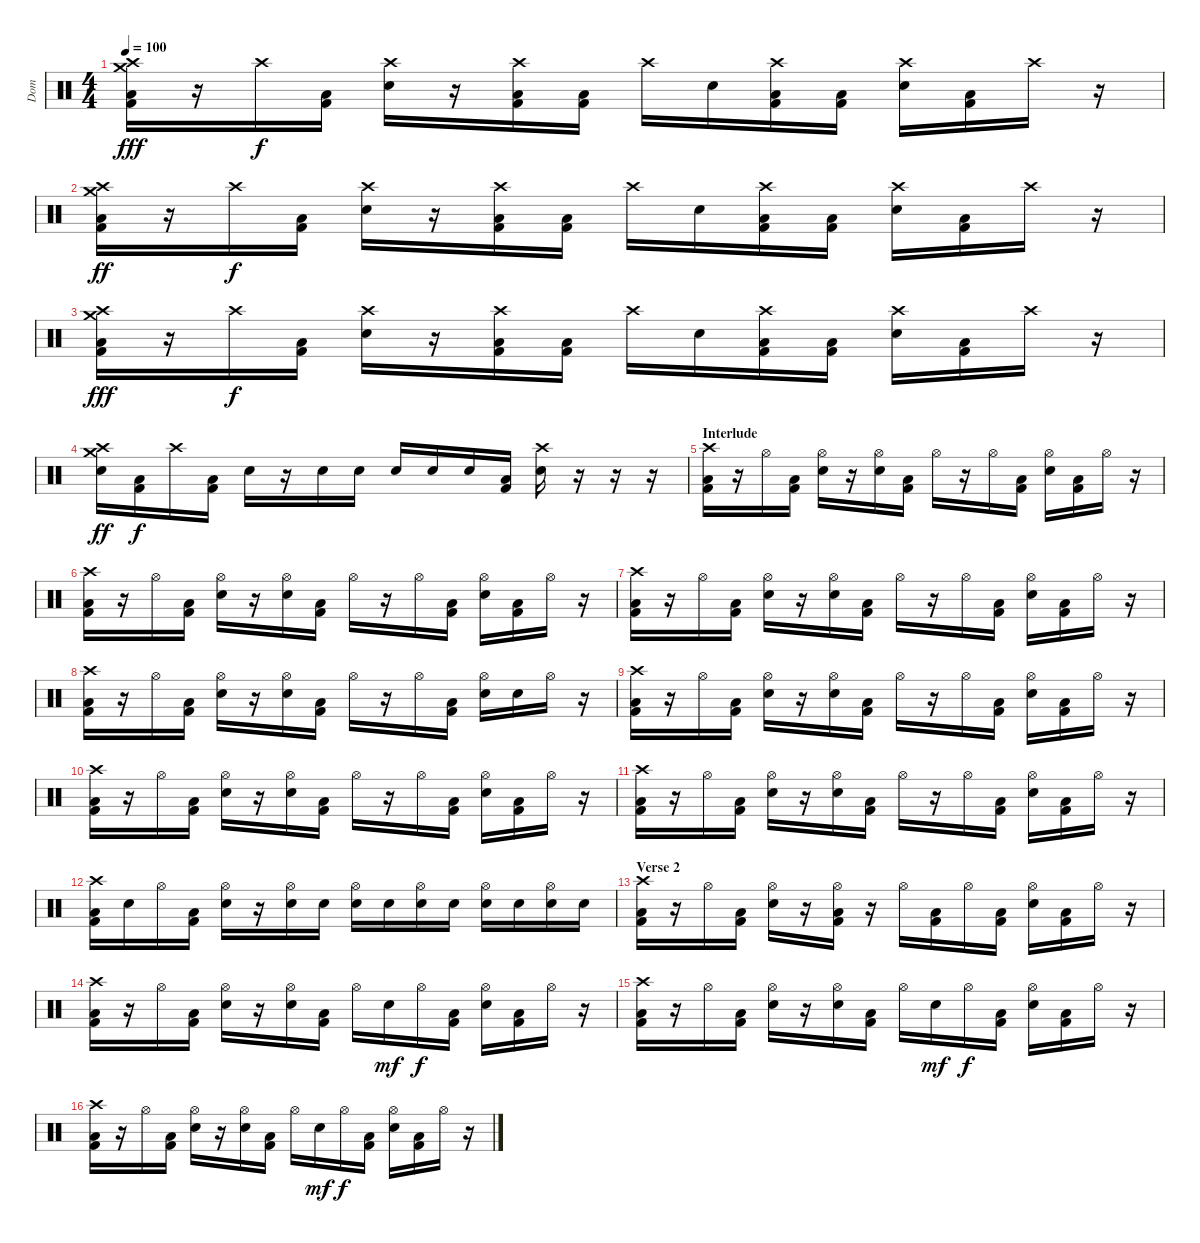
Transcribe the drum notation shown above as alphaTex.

\track ("Dom" "Dom") {instrument percussion}
\staff {score}
\articulation defaults
\ts (4 4)
\tempo 100
\clef neutral
\ks c
("Crash high (hit)" "Crash medium (hit)" "Low Floor Tom (hit)" "Kick (hit) 2").16{dy fff} r.16 "Crash high (hit)".16{dy f} ("Low Floor Tom (hit)" "Kick (hit) 2").16 ("Crash high (hit)" "Electric Snare (hit)").16 r.16 ("Crash high (hit)" "Low Floor Tom (hit)" "Kick (hit) 2").16 ("Low Floor Tom (hit)" "Kick (hit) 2").16 "Crash high (hit)".16 "Electric Snare (hit)".16 ("Crash high (hit)" "Low Floor Tom (hit)" "Kick (hit) 2").16 ("Low Floor Tom (hit)" "Kick (hit) 2").16 ("Crash high (hit)" "Electric Snare (hit)").16 ("Low Floor Tom (hit)" "Kick (hit) 2").16 "Crash high (hit)".16 r.16 |
("Crash high (hit)" "Crash medium (hit)" "Low Floor Tom (hit)" "Kick (hit) 2").16{dy ff} r.16 "Crash high (hit)".16{dy f} ("Low Floor Tom (hit)" "Kick (hit) 2").16 ("Crash high (hit)" "Electric Snare (hit)").16 r.16 ("Crash high (hit)" "Low Floor Tom (hit)" "Kick (hit) 2").16 ("Low Floor Tom (hit)" "Kick (hit) 2").16 "Crash high (hit)".16 "Electric Snare (hit)".16 ("Crash high (hit)" "Low Floor Tom (hit)" "Kick (hit) 2").16 ("Low Floor Tom (hit)" "Kick (hit) 2").16 ("Crash high (hit)" "Electric Snare (hit)").16 ("Low Floor Tom (hit)" "Kick (hit) 2").16 "Crash high (hit)".16 r.16 |
("Crash high (hit)" "Crash medium (hit)" "Low Floor Tom (hit)" "Kick (hit) 2").16{dy fff} r.16 "Crash high (hit)".16{dy f} ("Low Floor Tom (hit)" "Kick (hit) 2").16 ("Crash high (hit)" "Electric Snare (hit)").16 r.16 ("Crash high (hit)" "Low Floor Tom (hit)" "Kick (hit) 2").16 ("Low Floor Tom (hit)" "Kick (hit) 2").16 "Crash high (hit)".16 "Electric Snare (hit)".16 ("Crash high (hit)" "Low Floor Tom (hit)" "Kick (hit) 2").16 ("Low Floor Tom (hit)" "Kick (hit) 2").16 ("Crash high (hit)" "Electric Snare (hit)").16 ("Low Floor Tom (hit)" "Kick (hit) 2").16 "Crash high (hit)".16 r.16 |
("Crash high (hit)" "Crash medium (hit)" "Electric Snare (hit)").16{dy ff} ("Low Floor Tom (hit)" "Kick (hit) 2").16{dy f} "Crash high (hit)".16 ("Low Floor Tom (hit)" "Kick (hit) 2").16 "Electric Snare (hit)".16 r.16 "Electric Snare (hit)".16 "Electric Snare (hit)".16 "Electric Snare (hit)".16 "Electric Snare (hit)".16 "Electric Snare (hit)".16 ("Low Floor Tom (hit)" "Kick (hit) 2").16 ("Crash high (hit)" "Electric Snare (hit)").16 r.16 r.16 r.16 |
\section ("" "Interlude")
("Crash high (hit)" "Low Floor Tom (hit)" "Kick (hit) 2").16 r.16 "Hi-Hat (open)".16 ("Low Floor Tom (hit)" "Kick (hit) 2").16 ("Hi-Hat (open)" "Electric Snare (hit)").16 r.16 ("Hi-Hat (open)" "Electric Snare (hit)").16 ("Low Floor Tom (hit)" "Kick (hit) 2").16 "Hi-Hat (open)".16 r.16 "Hi-Hat (open)".16 ("Low Floor Tom (hit)" "Kick (hit) 2").16 ("Hi-Hat (open)" "Electric Snare (hit)").16 ("Low Floor Tom (hit)" "Kick (hit) 2").16 "Hi-Hat (open)".16 r.16 |
("Crash high (hit)" "Low Floor Tom (hit)" "Kick (hit) 2").16 r.16 "Hi-Hat (open)".16 ("Low Floor Tom (hit)" "Kick (hit) 2").16 ("Hi-Hat (open)" "Electric Snare (hit)").16 r.16 ("Hi-Hat (open)" "Electric Snare (hit)").16 ("Low Floor Tom (hit)" "Kick (hit) 2").16 "Hi-Hat (open)".16 r.16 "Hi-Hat (open)".16 ("Low Floor Tom (hit)" "Kick (hit) 2").16 ("Hi-Hat (open)" "Electric Snare (hit)").16 ("Low Floor Tom (hit)" "Kick (hit) 2").16 "Hi-Hat (open)".16 r.16 |
("Crash high (hit)" "Low Floor Tom (hit)" "Kick (hit) 2").16 r.16 "Hi-Hat (open)".16 ("Low Floor Tom (hit)" "Kick (hit) 2").16 ("Hi-Hat (open)" "Electric Snare (hit)").16 r.16 ("Hi-Hat (open)" "Electric Snare (hit)").16 ("Low Floor Tom (hit)" "Kick (hit) 2").16 "Hi-Hat (open)".16 r.16 "Hi-Hat (open)".16 ("Low Floor Tom (hit)" "Kick (hit) 2").16 ("Hi-Hat (open)" "Electric Snare (hit)").16 ("Low Floor Tom (hit)" "Kick (hit) 2").16 "Hi-Hat (open)".16 r.16 |
("Crash high (hit)" "Low Floor Tom (hit)" "Kick (hit) 2").16 r.16 "Hi-Hat (open)".16 ("Low Floor Tom (hit)" "Kick (hit) 2").16 ("Hi-Hat (open)" "Electric Snare (hit)").16 r.16 ("Hi-Hat (open)" "Electric Snare (hit)").16 ("Low Floor Tom (hit)" "Kick (hit) 2").16 "Hi-Hat (open)".16 r.16 "Hi-Hat (open)".16 ("Low Floor Tom (hit)" "Kick (hit) 2").16 ("Hi-Hat (open)" "Electric Snare (hit)").16 "Electric Snare (hit)".16 "Hi-Hat (open)".16 r.16 |
("Crash high (hit)" "Low Floor Tom (hit)" "Kick (hit) 2").16 r.16 "Hi-Hat (open)".16 ("Low Floor Tom (hit)" "Kick (hit) 2").16 ("Hi-Hat (open)" "Electric Snare (hit)").16 r.16 ("Hi-Hat (open)" "Electric Snare (hit)").16 ("Low Floor Tom (hit)" "Kick (hit) 2").16 "Hi-Hat (open)".16 r.16 "Hi-Hat (open)".16 ("Low Floor Tom (hit)" "Kick (hit) 2").16 ("Hi-Hat (open)" "Electric Snare (hit)").16 ("Low Floor Tom (hit)" "Kick (hit) 2").16 "Hi-Hat (open)".16 r.16 |
("Crash high (hit)" "Low Floor Tom (hit)" "Kick (hit) 2").16 r.16 "Hi-Hat (open)".16 ("Low Floor Tom (hit)" "Kick (hit) 2").16 ("Hi-Hat (open)" "Electric Snare (hit)").16 r.16 ("Hi-Hat (open)" "Electric Snare (hit)").16 ("Low Floor Tom (hit)" "Kick (hit) 2").16 "Hi-Hat (open)".16 r.16 "Hi-Hat (open)".16 ("Low Floor Tom (hit)" "Kick (hit) 2").16 ("Hi-Hat (open)" "Electric Snare (hit)").16 ("Low Floor Tom (hit)" "Kick (hit) 2").16 "Hi-Hat (open)".16 r.16 |
("Crash high (hit)" "Low Floor Tom (hit)" "Kick (hit) 2").16 r.16 "Hi-Hat (open)".16 ("Low Floor Tom (hit)" "Kick (hit) 2").16 ("Hi-Hat (open)" "Electric Snare (hit)").16 r.16 ("Hi-Hat (open)" "Electric Snare (hit)").16 ("Low Floor Tom (hit)" "Kick (hit) 2").16 "Hi-Hat (open)".16 r.16 "Hi-Hat (open)".16 ("Low Floor Tom (hit)" "Kick (hit) 2").16 ("Hi-Hat (open)" "Electric Snare (hit)").16 ("Low Floor Tom (hit)" "Kick (hit) 2").16 "Hi-Hat (open)".16 r.16 |
("Crash high (hit)" "Low Floor Tom (hit)" "Kick (hit) 2").16 "Electric Snare (hit)".16 "Hi-Hat (open)".16 ("Low Floor Tom (hit)" "Kick (hit) 2").16 ("Hi-Hat (open)" "Electric Snare (hit)").16 r.16 ("Hi-Hat (open)" "Electric Snare (hit)").16 "Electric Snare (hit)".16 ("Hi-Hat (open)" "Electric Snare (hit)").16 "Electric Snare (hit)".16 ("Hi-Hat (open)" "Electric Snare (hit)").16 "Electric Snare (hit)".16 ("Hi-Hat (open)" "Electric Snare (hit)").16 "Electric Snare (hit)".16 ("Hi-Hat (open)" "Electric Snare (hit)").16 "Electric Snare (hit)".16 |
\section ("" "Verse 2")
("Crash high (hit)" "Low Floor Tom (hit)" "Kick (hit) 2").16 r.16 "Hi-Hat (open)".16 ("Low Floor Tom (hit)" "Kick (hit) 2").16 ("Hi-Hat (open)" "Electric Snare (hit)").16 r.16 ("Hi-Hat (open)" "Low Floor Tom (hit)" "Kick (hit) 2").16 r.16 "Hi-Hat (open)".16 ("Low Floor Tom (hit)" "Kick (hit) 2").16 "Hi-Hat (open)".16 ("Low Floor Tom (hit)" "Kick (hit) 2").16 ("Hi-Hat (open)" "Electric Snare (hit)").16 ("Low Floor Tom (hit)" "Kick (hit) 2").16 "Hi-Hat (open)".16 r.16 |
("Crash high (hit)" "Low Floor Tom (hit)" "Kick (hit) 2").16 r.16 "Hi-Hat (open)".16 ("Low Floor Tom (hit)" "Kick (hit) 2").16 ("Hi-Hat (open)" "Electric Snare (hit)").16 r.16 ("Hi-Hat (open)" "Electric Snare (hit)").16 ("Low Floor Tom (hit)" "Kick (hit) 2").16 "Hi-Hat (open)".16 "Electric Snare (hit)".16{dy mf} "Hi-Hat (open)".16{dy f} ("Low Floor Tom (hit)" "Kick (hit) 2").16 ("Hi-Hat (open)" "Electric Snare (hit)").16 ("Low Floor Tom (hit)" "Kick (hit) 2").16 "Hi-Hat (open)".16 r.16 |
("Crash high (hit)" "Low Floor Tom (hit)" "Kick (hit) 2").16 r.16 "Hi-Hat (open)".16 ("Low Floor Tom (hit)" "Kick (hit) 2").16 ("Hi-Hat (open)" "Electric Snare (hit)").16 r.16 ("Hi-Hat (open)" "Electric Snare (hit)").16 ("Low Floor Tom (hit)" "Kick (hit) 2").16 "Hi-Hat (open)".16 "Electric Snare (hit)".16{dy mf} "Hi-Hat (open)".16{dy f} ("Low Floor Tom (hit)" "Kick (hit) 2").16 ("Hi-Hat (open)" "Electric Snare (hit)").16 ("Low Floor Tom (hit)" "Kick (hit) 2").16 "Hi-Hat (open)".16 r.16 |
("Crash high (hit)" "Low Floor Tom (hit)" "Kick (hit) 2").16 r.16 "Hi-Hat (open)".16 ("Low Floor Tom (hit)" "Kick (hit) 2").16 ("Hi-Hat (open)" "Electric Snare (hit)").16 r.16 ("Hi-Hat (open)" "Electric Snare (hit)").16 ("Low Floor Tom (hit)" "Kick (hit) 2").16 "Hi-Hat (open)".16 "Electric Snare (hit)".16{dy mf} "Hi-Hat (open)".16{dy f} ("Low Floor Tom (hit)" "Kick (hit) 2").16 ("Hi-Hat (open)" "Electric Snare (hit)").16 ("Low Floor Tom (hit)" "Kick (hit) 2").16 "Hi-Hat (open)".16 r.16
